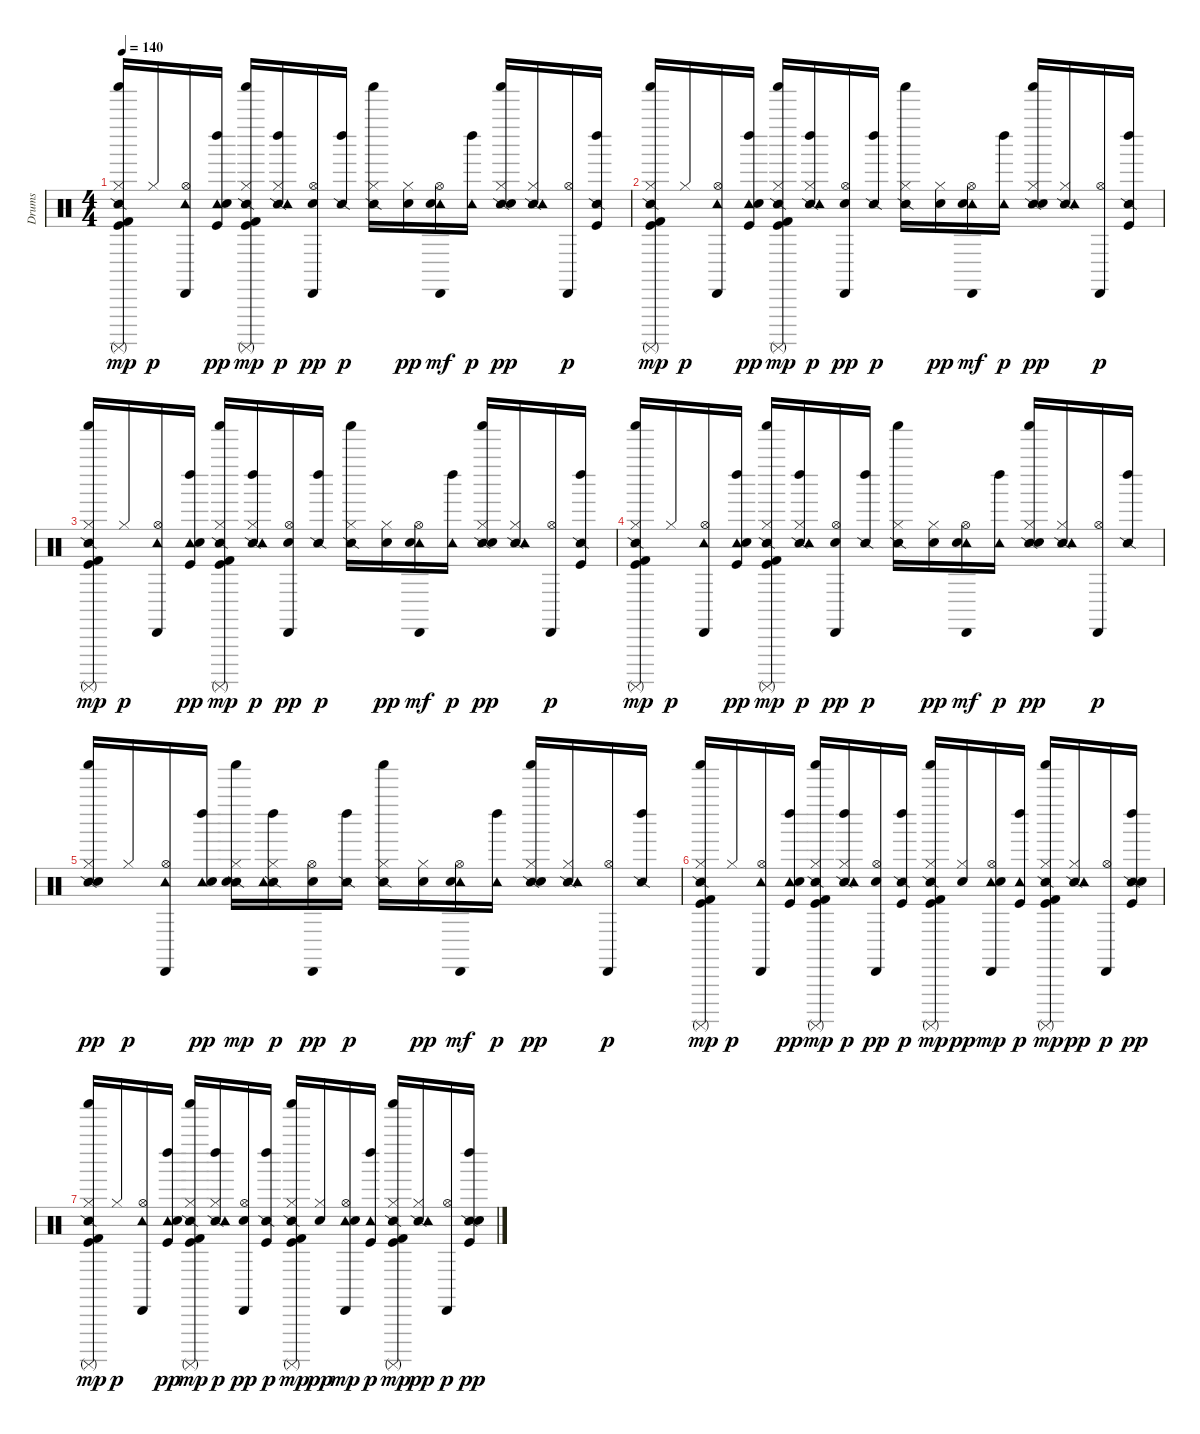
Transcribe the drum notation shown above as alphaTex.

\track ("Drums" "Drums") {instrument percussion}
\staff {score}
\articulation defaults
\ts (4 4)
\tempo 140
\clef neutral
\ks c
("Snare (side stick) 2" "Kick (hit)" "Kick (hit) 2" "Hi-Hat (closed)" "Shaker (hit)" "Surdo (mute)").16{dy mp} "Hi-Hat (closed)".16{dy p} ("Hi-Hat (open)" "Tambourine (hit)" "Cabasa (hit)").16 ("Kick (hit)" "Tambourine (hit)" "Left Maraca (hit)" "Electric Snare (hit)").16{dy pp} ("Snare (side stick) 2" "Kick (hit)" "Kick (hit) 2" "Hi-Hat (closed)" "Shaker (hit)" "Surdo (mute)").16{dy mp} ("Snare (side stick) 2" "Hi-Hat (closed)" "Tambourine (hit)" "Left Maraca (hit)").16{dy p} ("Hi-Hat (open)" "Cabasa (hit)" "Snare (hit) 2").16{dy pp} ("Snare (side stick) 2" "Left Maraca (hit)").16{dy p} ("Snare (side stick) 2" "Hi-Hat (closed)" "Shaker (hit)").16 ("Hi-Hat (closed)" "Electric Snare (hit)").16{dy pp} ("Hi-Hat (open)" "Tambourine (hit)" "Cabasa (hit)" "Snare (hit) 2").16{dy mf} ("Tambourine (hit)" "Left Maraca (hit)").16{dy p} ("Snare (side stick) 2" "Hi-Hat (closed)" "Shaker (hit)" "Electric Snare (hit)").16{dy pp} ("Snare (side stick) 2" "Hi-Hat (closed)" "Tambourine (hit)").16 ("Hi-Hat (open)" "Cabasa (hit)").16{dy p} ("Snare (side stick) 2" "Kick (hit)" "Left Maraca (hit)").16 |
("Snare (side stick) 2" "Kick (hit)" "Kick (hit) 2" "Hi-Hat (closed)" "Shaker (hit)" "Surdo (mute)").16{dy mp} "Hi-Hat (closed)".16{dy p} ("Hi-Hat (open)" "Tambourine (hit)" "Cabasa (hit)").16 ("Kick (hit)" "Tambourine (hit)" "Left Maraca (hit)" "Electric Snare (hit)").16{dy pp} ("Snare (side stick) 2" "Kick (hit)" "Kick (hit) 2" "Hi-Hat (closed)" "Shaker (hit)" "Surdo (mute)").16{dy mp} ("Snare (side stick) 2" "Hi-Hat (closed)" "Tambourine (hit)" "Left Maraca (hit)").16{dy p} ("Hi-Hat (open)" "Cabasa (hit)" "Snare (hit) 2").16{dy pp} ("Snare (side stick) 2" "Left Maraca (hit)").16{dy p} ("Snare (side stick) 2" "Hi-Hat (closed)" "Shaker (hit)").16 ("Hi-Hat (closed)" "Electric Snare (hit)").16{dy pp} ("Hi-Hat (open)" "Tambourine (hit)" "Cabasa (hit)" "Snare (hit) 2").16{dy mf} ("Tambourine (hit)" "Left Maraca (hit)").16{dy p} ("Snare (side stick) 2" "Hi-Hat (closed)" "Shaker (hit)" "Electric Snare (hit)").16{dy pp} ("Snare (side stick) 2" "Hi-Hat (closed)" "Tambourine (hit)").16 ("Hi-Hat (open)" "Cabasa (hit)").16{dy p} ("Snare (side stick) 2" "Kick (hit)" "Left Maraca (hit)").16 |
("Snare (side stick) 2" "Kick (hit)" "Kick (hit) 2" "Hi-Hat (closed)" "Shaker (hit)" "Surdo (mute)").16{dy mp} "Hi-Hat (closed)".16{dy p} ("Hi-Hat (open)" "Tambourine (hit)" "Cabasa (hit)").16 ("Kick (hit)" "Tambourine (hit)" "Left Maraca (hit)" "Electric Snare (hit)").16{dy pp} ("Snare (side stick) 2" "Kick (hit)" "Kick (hit) 2" "Hi-Hat (closed)" "Shaker (hit)" "Surdo (mute)").16{dy mp} ("Snare (side stick) 2" "Hi-Hat (closed)" "Tambourine (hit)" "Left Maraca (hit)").16{dy p} ("Hi-Hat (open)" "Cabasa (hit)" "Snare (hit) 2").16{dy pp} ("Snare (side stick) 2" "Left Maraca (hit)").16{dy p} ("Snare (side stick) 2" "Hi-Hat (closed)" "Shaker (hit)").16 ("Hi-Hat (closed)" "Electric Snare (hit)").16{dy pp} ("Hi-Hat (open)" "Tambourine (hit)" "Cabasa (hit)" "Snare (hit) 2").16{dy mf} ("Tambourine (hit)" "Left Maraca (hit)").16{dy p} ("Snare (side stick) 2" "Hi-Hat (closed)" "Shaker (hit)" "Electric Snare (hit)").16{dy pp} ("Snare (side stick) 2" "Hi-Hat (closed)" "Tambourine (hit)").16 ("Hi-Hat (open)" "Cabasa (hit)").16{dy p} ("Snare (side stick) 2" "Kick (hit)" "Left Maraca (hit)").16 |
("Snare (side stick) 2" "Kick (hit)" "Kick (hit) 2" "Hi-Hat (closed)" "Shaker (hit)" "Surdo (mute)").16{dy mp} "Hi-Hat (closed)".16{dy p} ("Hi-Hat (open)" "Tambourine (hit)" "Cabasa (hit)").16 ("Kick (hit)" "Tambourine (hit)" "Left Maraca (hit)" "Electric Snare (hit)").16{dy pp} ("Snare (side stick) 2" "Kick (hit)" "Kick (hit) 2" "Hi-Hat (closed)" "Shaker (hit)" "Surdo (mute)").16{dy mp} ("Snare (side stick) 2" "Hi-Hat (closed)" "Tambourine (hit)" "Left Maraca (hit)").16{dy p} ("Hi-Hat (open)" "Cabasa (hit)" "Snare (hit) 2").16{dy pp} ("Snare (side stick) 2" "Left Maraca (hit)").16{dy p} ("Snare (side stick) 2" "Hi-Hat (closed)" "Shaker (hit)").16 ("Hi-Hat (closed)" "Electric Snare (hit)").16{dy pp} ("Hi-Hat (open)" "Tambourine (hit)" "Cabasa (hit)" "Snare (hit) 2").16{dy mf} ("Tambourine (hit)" "Left Maraca (hit)").16{dy p} ("Snare (side stick) 2" "Hi-Hat (closed)" "Shaker (hit)" "Electric Snare (hit)").16{dy pp} ("Snare (side stick) 2" "Hi-Hat (closed)" "Tambourine (hit)").16 ("Hi-Hat (open)" "Cabasa (hit)").16{dy p} ("Snare (side stick) 2" "Left Maraca (hit)").16 |
("Snare (side stick) 2" "Hi-Hat (closed)" "Shaker (hit)" "Snare (hit) 2").16{dy pp} "Hi-Hat (closed)".16{dy p} ("Hi-Hat (open)" "Tambourine (hit)" "Cabasa (hit)").16 ("Tambourine (hit)" "Left Maraca (hit)" "Electric Snare (hit)").16{dy pp} ("Snare (side stick) 2" "Hi-Hat (closed)" "Shaker (hit)" "Snare (hit) 2").16{dy mp} ("Snare (side stick) 2" "Hi-Hat (closed)" "Tambourine (hit)" "Left Maraca (hit)").16{dy p} ("Hi-Hat (open)" "Cabasa (hit)" "Snare (hit) 2").16{dy pp} ("Snare (side stick) 2" "Left Maraca (hit)").16{dy p} ("Snare (side stick) 2" "Hi-Hat (closed)" "Shaker (hit)").16 ("Hi-Hat (closed)" "Electric Snare (hit)").16{dy pp} ("Hi-Hat (open)" "Tambourine (hit)" "Cabasa (hit)" "Snare (hit) 2").16{dy mf} ("Tambourine (hit)" "Left Maraca (hit)").16{dy p} ("Snare (side stick) 2" "Hi-Hat (closed)" "Shaker (hit)" "Electric Snare (hit)").16{dy pp} ("Snare (side stick) 2" "Hi-Hat (closed)" "Tambourine (hit)").16 ("Hi-Hat (open)" "Cabasa (hit)").16{dy p} ("Snare (side stick) 2" "Left Maraca (hit)").16 |
("Snare (side stick) 2" "Kick (hit)" "Kick (hit) 2" "Hi-Hat (closed)" "Shaker (hit)" "Surdo (mute)").16{dy mp} "Hi-Hat (closed)".16{dy p} ("Hi-Hat (open)" "Tambourine (hit)" "Cabasa (hit)").16 ("Kick (hit)" "Tambourine (hit)" "Left Maraca (hit)" "Electric Snare (hit)").16{dy pp} ("Snare (side stick) 2" "Kick (hit)" "Kick (hit) 2" "Hi-Hat (closed)" "Shaker (hit)" "Surdo (mute)").16{dy mp} ("Snare (side stick) 2" "Hi-Hat (closed)" "Tambourine (hit)" "Left Maraca (hit)").16{dy p} ("Hi-Hat (open)" "Cabasa (hit)" "Snare (hit) 2").16{dy pp} ("Snare (side stick) 2" "Kick (hit)" "Left Maraca (hit)").16{dy p} ("Snare (side stick) 2" "Kick (hit)" "Kick (hit) 2" "Hi-Hat (closed)" "Shaker (hit)" "Surdo (mute)").16{dy mp} ("Hi-Hat (closed)" "Electric Snare (hit)").16{dy pp} ("Hi-Hat (open)" "Tambourine (hit)" "Cabasa (hit)" "Snare (hit) 2").16{dy mp} ("Kick (hit)" "Tambourine (hit)" "Left Maraca (hit)").16{dy p} ("Snare (side stick) 2" "Kick (hit)" "Kick (hit) 2" "Hi-Hat (closed)" "Shaker (hit)" "Surdo (mute)").16{dy mp} ("Snare (side stick) 2" "Hi-Hat (closed)" "Tambourine (hit)").16{dy pp} ("Hi-Hat (open)" "Cabasa (hit)").16{dy p} ("Snare (side stick) 2" "Kick (hit)" "Left Maraca (hit)" "Snare (hit) 2").16{dy pp} |
("Snare (side stick) 2" "Kick (hit)" "Kick (hit) 2" "Hi-Hat (closed)" "Shaker (hit)" "Surdo (mute)").16{dy mp} "Hi-Hat (closed)".16{dy p} ("Hi-Hat (open)" "Tambourine (hit)" "Cabasa (hit)").16 ("Kick (hit)" "Tambourine (hit)" "Left Maraca (hit)" "Electric Snare (hit)").16{dy pp} ("Snare (side stick) 2" "Kick (hit)" "Kick (hit) 2" "Hi-Hat (closed)" "Shaker (hit)" "Surdo (mute)").16{dy mp} ("Snare (side stick) 2" "Hi-Hat (closed)" "Tambourine (hit)" "Left Maraca (hit)").16{dy p} ("Hi-Hat (open)" "Cabasa (hit)" "Snare (hit) 2").16{dy pp} ("Snare (side stick) 2" "Kick (hit)" "Left Maraca (hit)").16{dy p} ("Snare (side stick) 2" "Kick (hit)" "Kick (hit) 2" "Hi-Hat (closed)" "Shaker (hit)" "Surdo (mute)").16{dy mp} ("Hi-Hat (closed)" "Electric Snare (hit)").16{dy pp} ("Hi-Hat (open)" "Tambourine (hit)" "Cabasa (hit)" "Snare (hit) 2").16{dy mp} ("Kick (hit)" "Tambourine (hit)" "Left Maraca (hit)").16{dy p} ("Snare (side stick) 2" "Kick (hit)" "Kick (hit) 2" "Hi-Hat (closed)" "Shaker (hit)" "Surdo (mute)").16{dy mp} ("Snare (side stick) 2" "Hi-Hat (closed)" "Tambourine (hit)").16{dy pp} ("Hi-Hat (open)" "Cabasa (hit)").16{dy p} ("Snare (side stick) 2" "Kick (hit)" "Left Maraca (hit)" "Snare (hit) 2").16{dy pp}
